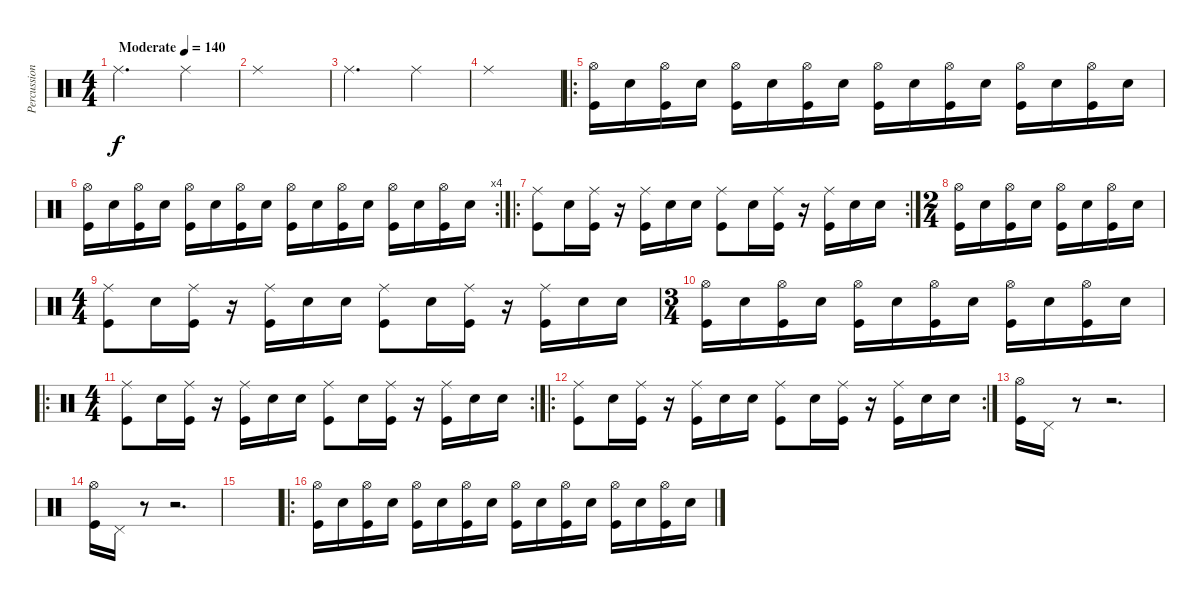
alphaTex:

\track ("Percussion" "Percussion") {instrument percussion}
\staff {score}
\articulation defaults
\ts (4 4)
\tempo (140 "Moderate")
\clef neutral
\ks c "Ride (middle)".2{d dy f} "Ride (middle)".4
|
"Ride (middle)".1 |
"Ride (middle)".2{d} "Ride (middle)".4 |
"Ride (middle)".1 |
\ro
("Hi-Hat (open)" "Kick (hit)").16 "Snare (hit) 2".16 ("Hi-Hat (open)" "Kick (hit)").16 "Snare (hit) 2".16 ("Hi-Hat (open)" "Kick (hit)").16 "Snare (hit) 2".16 ("Hi-Hat (open)" "Kick (hit)").16 "Snare (hit) 2".16 ("Hi-Hat (open)" "Kick (hit)").16 "Snare (hit) 2".16 ("Hi-Hat (open)" "Kick (hit)").16 "Snare (hit) 2".16 ("Hi-Hat (open)" "Kick (hit)").16 "Snare (hit) 2".16 ("Hi-Hat (open)" "Kick (hit)").16 "Snare (hit) 2".16 |
\rc 4
("Hi-Hat (open)" "Kick (hit)").16 "Snare (hit) 2".16 ("Hi-Hat (open)" "Kick (hit)").16 "Snare (hit) 2".16 ("Hi-Hat (open)" "Kick (hit)").16 "Snare (hit) 2".16 ("Hi-Hat (open)" "Kick (hit)").16 "Snare (hit) 2".16 ("Hi-Hat (open)" "Kick (hit)").16 "Snare (hit) 2".16 ("Hi-Hat (open)" "Kick (hit)").16 "Snare (hit) 2".16 ("Hi-Hat (open)" "Kick (hit)").16 "Snare (hit) 2".16 ("Hi-Hat (open)" "Kick (hit)").16 "Snare (hit) 2".16 |
\ro
\rc 2
("Ride (middle)" "Kick (hit)").8 "Snare (hit) 2".16 ("Ride (middle)" "Kick (hit)").16 r.16 ("Ride (middle)" "Kick (hit)").16 "Snare (hit) 2".16 "Snare (hit) 2".16 ("Ride (middle)" "Kick (hit)").8 "Snare (hit) 2".16 ("Ride (middle)" "Kick (hit)").16 r.16 ("Ride (middle)" "Kick (hit)").16 "Snare (hit) 2".16 "Snare (hit) 2".16 |
\ts (2 4)
("Hi-Hat (open)" "Kick (hit)").16 "Snare (hit) 2".16 ("Hi-Hat (open)" "Kick (hit)").16 "Snare (hit) 2".16 ("Hi-Hat (open)" "Kick (hit)").16 "Snare (hit) 2".16 ("Hi-Hat (open)" "Kick (hit)").16 "Snare (hit) 2".16 |
\ts (4 4)
("Ride (middle)" "Kick (hit)").8 "Snare (hit) 2".16 ("Ride (middle)" "Kick (hit)").16 r.16 ("Ride (middle)" "Kick (hit)").16 "Snare (hit) 2".16 "Snare (hit) 2".16 ("Ride (middle)" "Kick (hit)").8 "Snare (hit) 2".16 ("Ride (middle)" "Kick (hit)").16 r.16 ("Ride (middle)" "Kick (hit)").16 "Snare (hit) 2".16 "Snare (hit) 2".16 |
\ts (3 4)
("Hi-Hat (open)" "Kick (hit)").16 "Snare (hit) 2".16 ("Hi-Hat (open)" "Kick (hit)").16 "Snare (hit) 2".16 ("Hi-Hat (open)" "Kick (hit)").16 "Snare (hit) 2".16 ("Hi-Hat (open)" "Kick (hit)").16 "Snare (hit) 2".16 ("Hi-Hat (open)" "Kick (hit)").16 "Snare (hit) 2".16 ("Hi-Hat (open)" "Kick (hit)").16 "Snare (hit) 2".16 |
\ro
\rc 2
\ts (4 4)
("Ride (middle)" "Kick (hit)").8 "Snare (hit) 2".16 ("Ride (middle)" "Kick (hit)").16 r.16 ("Ride (middle)" "Kick (hit)").16 "Snare (hit) 2".16 "Snare (hit) 2".16 ("Ride (middle)" "Kick (hit)").8 "Snare (hit) 2".16 ("Ride (middle)" "Kick (hit)").16 r.16 ("Ride (middle)" "Kick (hit)").16 "Snare (hit) 2".16 "Snare (hit) 2".16 |
\ro
\rc 2
("Ride (middle)" "Kick (hit)").8 "Snare (hit) 2".16 ("Ride (middle)" "Kick (hit)").16 r.16 ("Ride (middle)" "Kick (hit)").16 "Snare (hit) 2".16 "Snare (hit) 2".16 ("Ride (middle)" "Kick (hit)").8 "Snare (hit) 2".16 ("Ride (middle)" "Kick (hit)").16 r.16 ("Ride (middle)" "Kick (hit)").16 "Snare (hit) 2".16 "Snare (hit) 2".16 |
("Hi-Hat (open)" "Kick (hit)").16 "Pedal Hi-Hat (hit)".16 r.8 r.2{d} |
("Hi-Hat (open)" "Kick (hit)").16 "Pedal Hi-Hat (hit)".16 r.8 r.2{d} |
|
\ro
("Hi-Hat (open)" "Kick (hit)").16 "Snare (hit) 2".16 ("Hi-Hat (open)" "Kick (hit)").16 "Snare (hit) 2".16 ("Hi-Hat (open)" "Kick (hit)").16 "Snare (hit) 2".16 ("Hi-Hat (open)" "Kick (hit)").16 "Snare (hit) 2".16 ("Hi-Hat (open)" "Kick (hit)").16 "Snare (hit) 2".16 ("Hi-Hat (open)" "Kick (hit)").16 "Snare (hit) 2".16 ("Hi-Hat (open)" "Kick (hit)").16 "Snare (hit) 2".16 ("Hi-Hat (open)" "Kick (hit)").16 "Snare (hit) 2".16
